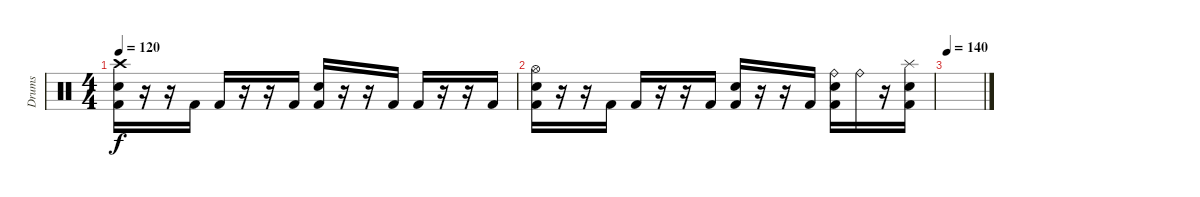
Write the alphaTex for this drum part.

\track ("Drums" "Drums") {instrument percussion}
\staff {score}
\articulation defaults
\ts (4 4)
\tempo 120
\clef neutral
\ks c
("Crash high (hit)" "Electric Snare (hit)" "Kick (hit) 2").16{dy f} r.16 r.16 "Kick (hit) 2".16 "Kick (hit) 2".16 r.16 r.16 "Kick (hit) 2".16 ("Electric Snare (hit)" "Kick (hit) 2").16 r.16 r.16 "Kick (hit) 2".16 "Kick (hit) 2".16 r.16 r.16 "Kick (hit) 2".16 |
("Hi-Hat (open)" "Electric Snare (hit)" "Kick (hit) 2").16 r.16 r.16 "Kick (hit) 2".16 "Kick (hit) 2".16 r.16 r.16 "Kick (hit) 2".16 ("Electric Snare (hit)" "Kick (hit) 2").16 r.16 r.16 "Kick (hit) 2".16 ("Ride (bell)" "Electric Snare (hit)" "Kick (hit) 2").16 "Ride (bell)".16 r.16 ("Splash (hit)" "Electric Snare (hit)" "Kick (hit) 2").16 |
\tempo 140
